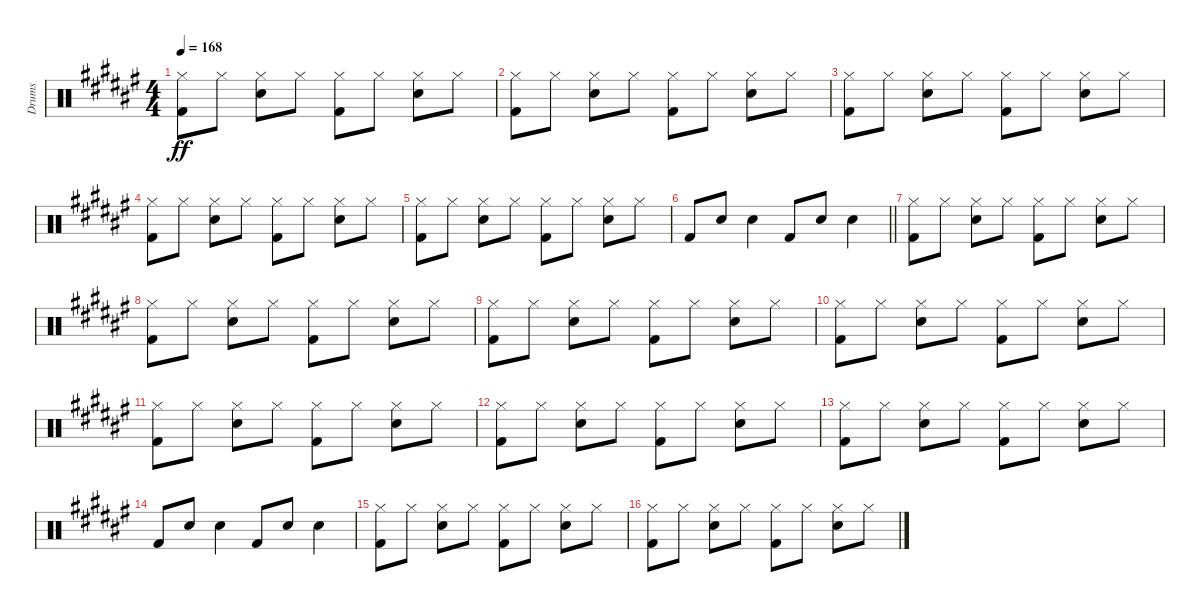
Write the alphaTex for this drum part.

\track ("Drums" "Drums") {instrument percussion}
\staff {score}
\articulation defaults
\ts (4 4)
\tempo 168
\clef neutral
\ks f#
("Hi-Hat (closed)" "Kick (hit) 2").8{dy ff} "Hi-Hat (closed)".8 ("Hi-Hat (closed)" "Snare (hit) 2").8 "Hi-Hat (closed)".8 ("Hi-Hat (closed)" "Kick (hit) 2").8 "Hi-Hat (closed)".8 ("Hi-Hat (closed)" "Snare (hit) 2").8 "Hi-Hat (closed)".8 |
("Hi-Hat (closed)" "Kick (hit) 2").8 "Hi-Hat (closed)".8 ("Hi-Hat (closed)" "Snare (hit) 2").8 "Hi-Hat (closed)".8 ("Hi-Hat (closed)" "Kick (hit) 2").8 "Hi-Hat (closed)".8 ("Hi-Hat (closed)" "Snare (hit) 2").8 "Hi-Hat (closed)".8 |
("Hi-Hat (closed)" "Kick (hit) 2").8 "Hi-Hat (closed)".8 ("Hi-Hat (closed)" "Snare (hit) 2").8 "Hi-Hat (closed)".8 ("Hi-Hat (closed)" "Kick (hit) 2").8 "Hi-Hat (closed)".8 ("Hi-Hat (closed)" "Snare (hit) 2").8 "Hi-Hat (closed)".8 |
("Hi-Hat (closed)" "Kick (hit) 2").8 "Hi-Hat (closed)".8 ("Hi-Hat (closed)" "Snare (hit) 2").8 "Hi-Hat (closed)".8 ("Hi-Hat (closed)" "Kick (hit) 2").8 "Hi-Hat (closed)".8 ("Hi-Hat (closed)" "Snare (hit) 2").8 "Hi-Hat (closed)".8 |
("Hi-Hat (closed)" "Kick (hit) 2").8 "Hi-Hat (closed)".8 ("Hi-Hat (closed)" "Snare (hit) 2").8 "Hi-Hat (closed)".8 ("Hi-Hat (closed)" "Kick (hit) 2").8 "Hi-Hat (closed)".8 ("Hi-Hat (closed)" "Snare (hit) 2").8 "Hi-Hat (closed)".8 |
\barLineRight lightlight "Kick (hit) 2".8 "Snare (hit) 2".8 "Snare (hit) 2".4 "Kick (hit) 2".8 "Snare (hit) 2".8 "Snare (hit) 2".4
|
("Hi-Hat (closed)" "Kick (hit) 2").8 "Hi-Hat (closed)".8 ("Hi-Hat (closed)" "Snare (hit) 2").8 "Hi-Hat (closed)".8 ("Hi-Hat (closed)" "Kick (hit) 2").8 "Hi-Hat (closed)".8 ("Hi-Hat (closed)" "Snare (hit) 2").8 "Hi-Hat (closed)".8 |
("Hi-Hat (closed)" "Kick (hit) 2").8 "Hi-Hat (closed)".8 ("Hi-Hat (closed)" "Snare (hit) 2").8 "Hi-Hat (closed)".8 ("Hi-Hat (closed)" "Kick (hit) 2").8 "Hi-Hat (closed)".8 ("Hi-Hat (closed)" "Snare (hit) 2").8 "Hi-Hat (closed)".8 |
("Hi-Hat (closed)" "Kick (hit) 2").8 "Hi-Hat (closed)".8 ("Hi-Hat (closed)" "Snare (hit) 2").8 "Hi-Hat (closed)".8 ("Hi-Hat (closed)" "Kick (hit) 2").8 "Hi-Hat (closed)".8 ("Hi-Hat (closed)" "Snare (hit) 2").8 "Hi-Hat (closed)".8 |
("Hi-Hat (closed)" "Kick (hit) 2").8 "Hi-Hat (closed)".8 ("Hi-Hat (closed)" "Snare (hit) 2").8 "Hi-Hat (closed)".8 ("Hi-Hat (closed)" "Kick (hit) 2").8 "Hi-Hat (closed)".8 ("Hi-Hat (closed)" "Snare (hit) 2").8 "Hi-Hat (closed)".8 |
("Hi-Hat (closed)" "Kick (hit) 2").8 "Hi-Hat (closed)".8 ("Hi-Hat (closed)" "Snare (hit) 2").8 "Hi-Hat (closed)".8 ("Hi-Hat (closed)" "Kick (hit) 2").8 "Hi-Hat (closed)".8 ("Hi-Hat (closed)" "Snare (hit) 2").8 "Hi-Hat (closed)".8 |
("Hi-Hat (closed)" "Kick (hit) 2").8 "Hi-Hat (closed)".8 ("Hi-Hat (closed)" "Snare (hit) 2").8 "Hi-Hat (closed)".8 ("Hi-Hat (closed)" "Kick (hit) 2").8 "Hi-Hat (closed)".8 ("Hi-Hat (closed)" "Snare (hit) 2").8 "Hi-Hat (closed)".8 |
("Hi-Hat (closed)" "Kick (hit) 2").8 "Hi-Hat (closed)".8 ("Hi-Hat (closed)" "Snare (hit) 2").8 "Hi-Hat (closed)".8 ("Hi-Hat (closed)" "Kick (hit) 2").8 "Hi-Hat (closed)".8 ("Hi-Hat (closed)" "Snare (hit) 2").8 "Hi-Hat (closed)".8 |
"Kick (hit) 2".8 "Snare (hit) 2".8 "Snare (hit) 2".4 "Kick (hit) 2".8 "Snare (hit) 2".8 "Snare (hit) 2".4 |
("Hi-Hat (closed)" "Kick (hit) 2").8 "Hi-Hat (closed)".8 ("Hi-Hat (closed)" "Snare (hit) 2").8 "Hi-Hat (closed)".8 ("Hi-Hat (closed)" "Kick (hit) 2").8 "Hi-Hat (closed)".8 ("Hi-Hat (closed)" "Snare (hit) 2").8 "Hi-Hat (closed)".8 |
("Hi-Hat (closed)" "Kick (hit) 2").8 "Hi-Hat (closed)".8 ("Hi-Hat (closed)" "Snare (hit) 2").8 "Hi-Hat (closed)".8 ("Hi-Hat (closed)" "Kick (hit) 2").8 "Hi-Hat (closed)".8 ("Hi-Hat (closed)" "Snare (hit) 2").8 "Hi-Hat (closed)".8
